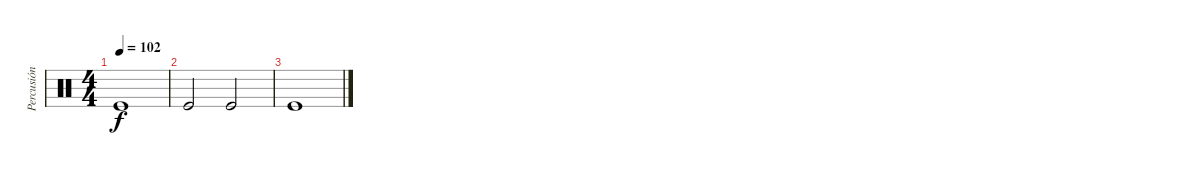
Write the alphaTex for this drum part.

\track ("Percusión" "Percusión") {instrument percussion}
\staff {score}
\articulation defaults
\ts (4 4)
\tempo 102
\clef neutral
\ks c "Kick (hit)".1{dy f}
|
"Kick (hit)".2 "Kick (hit)".2 |
"Kick (hit)".1
